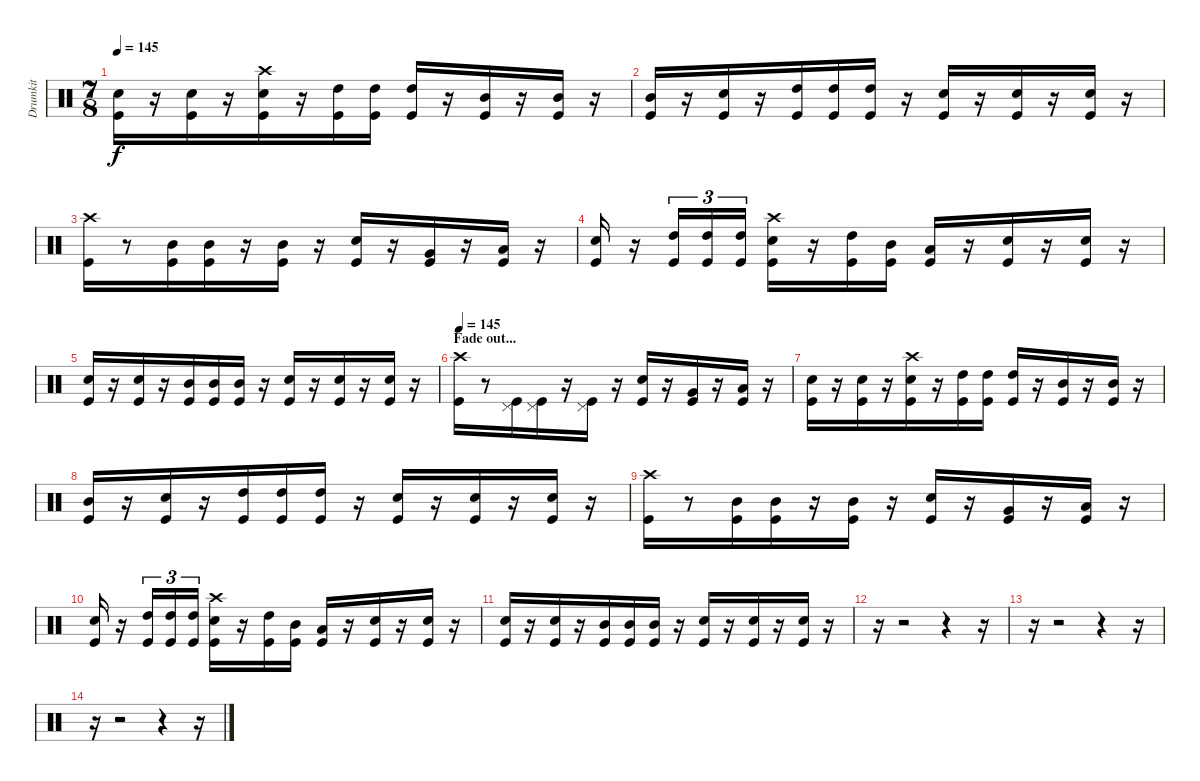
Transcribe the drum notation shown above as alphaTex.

\track ("Drumkit" "Drumkit") {instrument percussion}
\staff {score}
\articulation defaults
\ts (7 8)
\tempo 145
\clef neutral
\ks c
("Snare (hit) 2" "Kick (hit)").16{dy f} r.16 ("Snare (hit) 2" "Kick (hit)").16 r.16 ("Crash high (hit)" "Snare (hit) 2" "Kick (hit)").16 r.16 ("High Tom (hit)" "Kick (hit)").16 ("High Tom (hit)" "Kick (hit)").16 ("High Tom (hit)" "Kick (hit)").16 r.16 ("Mid Tom (hit)" "Kick (hit)").16 r.16 ("Mid Tom (hit)" "Kick (hit)").16 r.16 |
("Mid Tom (hit)" "Kick (hit)").16 r.16 ("Snare (hit) 2" "Kick (hit)").16 r.16 ("High Tom (hit)" "Kick (hit)").16 ("High Tom (hit)" "Kick (hit)").16 ("High Tom (hit)" "Kick (hit)").16 r.16 ("Snare (hit) 2" "Kick (hit)").16 r.16 ("Snare (hit) 2" "Kick (hit)").16 r.16 ("Snare (hit) 2" "Kick (hit)").16 r.16 |
("Crash high (hit)" "Kick (hit)").16 r.8 ("Mid Tom (hit)" "Kick (hit)").16 ("Mid Tom (hit)" "Kick (hit)").16 r.16 ("Mid Tom (hit)" "Kick (hit)").16 r.16 ("Snare (hit) 2" "Kick (hit)").16 r.16 ("Very Low Tom (hit)" "Kick (hit)").16 r.16 ("Low Tom (hit)" "Kick (hit)").16 r.16 |
("Snare (hit) 2" "Kick (hit)").16 r.16 ("High Tom (hit)" "Kick (hit)").16{tu (3 2)} ("High Tom (hit)" "Kick (hit)").16{tu (3 2)} ("High Tom (hit)" "Kick (hit)").16{tu (3 2)} ("Crash high (hit)" "Snare (hit) 2" "Kick (hit)").16 r.16 ("High Tom (hit)" "Kick (hit)").16 ("Mid Tom (hit)" "Kick (hit)").16 ("Low Tom (hit)" "Kick (hit)").16 r.16 ("Snare (hit) 2" "Kick (hit)").16 r.16 ("Snare (hit) 2" "Kick (hit)").16 r.16 |
("Snare (hit) 2" "Kick (hit)").16 r.16 ("Snare (hit) 2" "Kick (hit)").16 r.16 ("Mid Tom (hit)" "Kick (hit)").16 ("Mid Tom (hit)" "Kick (hit)").16 ("Mid Tom (hit)" "Kick (hit)").16 r.16 ("Snare (hit) 2" "Kick (hit)").16 r.16 ("Snare (hit) 2" "Kick (hit)").16 r.16 ("Snare (hit) 2" "Kick (hit)").16 r.16 |
\section ("" "Fade out...")
\tempo 145
("Crash high (hit)" "Kick (hit)").16 r.8 ("Pedal Hi-Hat (hit)" "Kick (hit)").16 ("Pedal Hi-Hat (hit)" "Kick (hit)").16 r.16 ("Pedal Hi-Hat (hit)" "Kick (hit)").16 r.16 ("Snare (hit) 2" "Kick (hit)").16 r.16 ("Very Low Tom (hit)" "Kick (hit)").16 r.16 ("Low Tom (hit)" "Kick (hit)").16 r.16 |
("Snare (hit) 2" "Kick (hit)").16 r.16 ("Snare (hit) 2" "Kick (hit)").16 r.16 ("Crash high (hit)" "Snare (hit) 2" "Kick (hit)").16 r.16 ("High Tom (hit)" "Kick (hit)").16 ("High Tom (hit)" "Kick (hit)").16 ("High Tom (hit)" "Kick (hit)").16 r.16 ("Mid Tom (hit)" "Kick (hit)").16 r.16 ("Mid Tom (hit)" "Kick (hit)").16 r.16 |
("Mid Tom (hit)" "Kick (hit)").16 r.16 ("Snare (hit) 2" "Kick (hit)").16 r.16 ("High Tom (hit)" "Kick (hit)").16 ("High Tom (hit)" "Kick (hit)").16 ("High Tom (hit)" "Kick (hit)").16 r.16 ("Snare (hit) 2" "Kick (hit)").16 r.16 ("Snare (hit) 2" "Kick (hit)").16 r.16 ("Snare (hit) 2" "Kick (hit)").16 r.16 |
("Crash high (hit)" "Kick (hit)").16 r.8 ("Mid Tom (hit)" "Kick (hit)").16 ("Mid Tom (hit)" "Kick (hit)").16 r.16 ("Mid Tom (hit)" "Kick (hit)").16 r.16 ("Snare (hit) 2" "Kick (hit)").16 r.16 ("Very Low Tom (hit)" "Kick (hit)").16 r.16 ("Low Tom (hit)" "Kick (hit)").16 r.16 |
("Snare (hit) 2" "Kick (hit)").16 r.16 ("High Tom (hit)" "Kick (hit)").16{tu (3 2)} ("High Tom (hit)" "Kick (hit)").16{tu (3 2)} ("High Tom (hit)" "Kick (hit)").16{tu (3 2)} ("Crash high (hit)" "Snare (hit) 2" "Kick (hit)").16 r.16 ("High Tom (hit)" "Kick (hit)").16 ("Mid Tom (hit)" "Kick (hit)").16 ("Low Tom (hit)" "Kick (hit)").16 r.16 ("Snare (hit) 2" "Kick (hit)").16 r.16 ("Snare (hit) 2" "Kick (hit)").16 r.16 |
("Snare (hit) 2" "Kick (hit)").16 r.16 ("Snare (hit) 2" "Kick (hit)").16 r.16 ("Mid Tom (hit)" "Kick (hit)").16 ("Mid Tom (hit)" "Kick (hit)").16 ("Mid Tom (hit)" "Kick (hit)").16 r.16 ("Snare (hit) 2" "Kick (hit)").16 r.16 ("Snare (hit) 2" "Kick (hit)").16 r.16 ("Snare (hit) 2" "Kick (hit)").16 r.16 |
r.16 r.2 r.4 r.16 |
r.16 r.2 r.4 r.16 |
r.16 r.2 r.4 r.16
